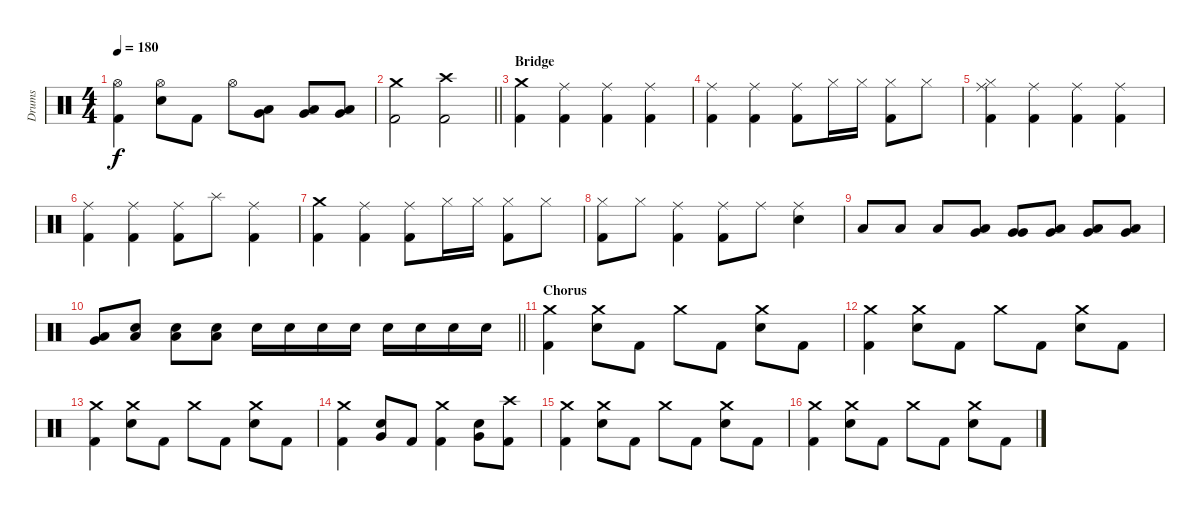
\track ("Drums" "Drums") {instrument percussion}
\staff {score}
\articulation defaults
\ts (4 4)
\tempo 180
\clef neutral
\ks c
("Hi-Hat (open)" "Kick (hit) 2").4{dy f} ("Hi-Hat (open)" "Electric Snare (hit)").8 "Kick (hit) 2".8 "Hi-Hat (open)".8 ("Low Tom (hit)" "Very Low Tom (hit)").8 ("Low Tom (hit)" "Very Low Tom (hit)").8 ("Low Tom (hit)" "Very Low Tom (hit)").8 |
\barLineRight lightlight
("Crash medium (hit)" "Kick (hit) 2").2 ("Crash high (hit)" "Kick (hit) 2").2 |
\section ("" "Bridge")
("Crash medium (hit)" "Kick (hit) 2").4 ("Ride (middle)" "Kick (hit) 2").4 ("Ride (middle)" "Kick (hit) 2").4 ("Ride (middle)" "Kick (hit) 2").4 |
("Ride (middle)" "Kick (hit) 2").4 ("Ride (middle)" "Kick (hit) 2").4 ("Ride (middle)" "Kick (hit) 2").8 "Hi-Hat (closed)".16 "Hi-Hat (closed)".16 ("Hi-Hat (closed)" "Kick (hit) 2").8 "Hi-Hat (closed)".8 |
("Ride (middle)" "Hi-Hat (closed)" "Kick (hit) 2").4 ("Ride (middle)" "Kick (hit) 2").4 ("Ride (middle)" "Kick (hit) 2").4 ("Ride (middle)" "Kick (hit) 2").4 |
("Ride (middle)" "Kick (hit) 2").4 ("Ride (middle)" "Kick (hit) 2").4 ("Ride (middle)" "Kick (hit) 2").8 "Splash (hit)".8 ("Ride (middle)" "Kick (hit) 2").4 |
("Crash medium (hit)" "Kick (hit) 2").4 ("Ride (middle)" "Kick (hit) 2").4 ("Ride (middle)" "Kick (hit) 2").8 "Hi-Hat (closed)".16 "Hi-Hat (closed)".16 ("Hi-Hat (closed)" "Kick (hit) 2").8 "Hi-Hat (closed)".8 |
("Hi-Hat (closed)" "Kick (hit) 2").8 "Hi-Hat (closed)".8 ("Ride (middle)" "Kick (hit) 2").4 ("Ride (middle)" "Kick (hit) 2").8 "Ride (middle)".8 ("Ride (middle)" "Electric Snare (hit)").4 |
"Low Floor Tom (hit)".8 "Low Floor Tom (hit)".8 "Low Floor Tom (hit)".8 ("Very Low Tom (hit)" "Low Floor Tom (hit)").8 ("Very Low Tom (hit)" "Very Low Tom (hit)").8 ("Low Tom (hit)" "Very Low Tom (hit)").8 ("Low Tom (hit)" "Very Low Tom (hit)").8 ("Low Tom (hit)" "Very Low Tom (hit)").8 |
\barLineRight lightlight
("Low Tom (hit)" "Very Low Tom (hit)").8 ("Electric Snare (hit)" "Low Tom (hit)").8 ("Electric Snare (hit)" "Low Tom (hit)").8 ("Electric Snare (hit)" "Low Tom (hit)").8 "Electric Snare (hit)".16 "Electric Snare (hit)".16 "Electric Snare (hit)".16 "Electric Snare (hit)".16 "Electric Snare (hit)".16 "Electric Snare (hit)".16 "Electric Snare (hit)".16 "Electric Snare (hit)".16 |
\section ("" "Chorus")
("Crash medium (hit)" "Kick (hit) 2").4 ("Crash medium (hit)" "Electric Snare (hit)").8 "Kick (hit) 2".8 "Crash medium (hit)".8 "Kick (hit) 2".8 ("Crash medium (hit)" "Electric Snare (hit)").8 "Kick (hit) 2".8 |
("Crash medium (hit)" "Kick (hit) 2").4 ("Crash medium (hit)" "Electric Snare (hit)").8 "Kick (hit) 2".8 "Crash medium (hit)".8 "Kick (hit) 2".8 ("Crash medium (hit)" "Electric Snare (hit)").8 "Kick (hit) 2".8 |
("Crash medium (hit)" "Kick (hit) 2").4 ("Crash medium (hit)" "Electric Snare (hit)").8 "Kick (hit) 2".8 "Crash medium (hit)".8 "Kick (hit) 2".8 ("Crash medium (hit)" "Electric Snare (hit)").8 "Kick (hit) 2".8 |
("Crash medium (hit)" "Kick (hit) 2").4 ("Very Low Tom (hit)" "Electric Snare (hit)").8 "Kick (hit) 2".8 ("Crash medium (hit)" "Kick (hit) 2").4 ("Very Low Tom (hit)" "Electric Snare (hit)").8 ("Crash high (hit)" "Kick (hit) 2").8 |
("Crash medium (hit)" "Kick (hit) 2").4 ("Crash medium (hit)" "Electric Snare (hit)").8 "Kick (hit) 2".8 "Crash medium (hit)".8 "Kick (hit) 2".8 ("Crash medium (hit)" "Electric Snare (hit)").8 "Kick (hit) 2".8 |
("Crash medium (hit)" "Kick (hit) 2").4 ("Crash medium (hit)" "Electric Snare (hit)").8 "Kick (hit) 2".8 "Crash medium (hit)".8 "Kick (hit) 2".8 ("Crash medium (hit)" "Electric Snare (hit)").8 "Kick (hit) 2".8
